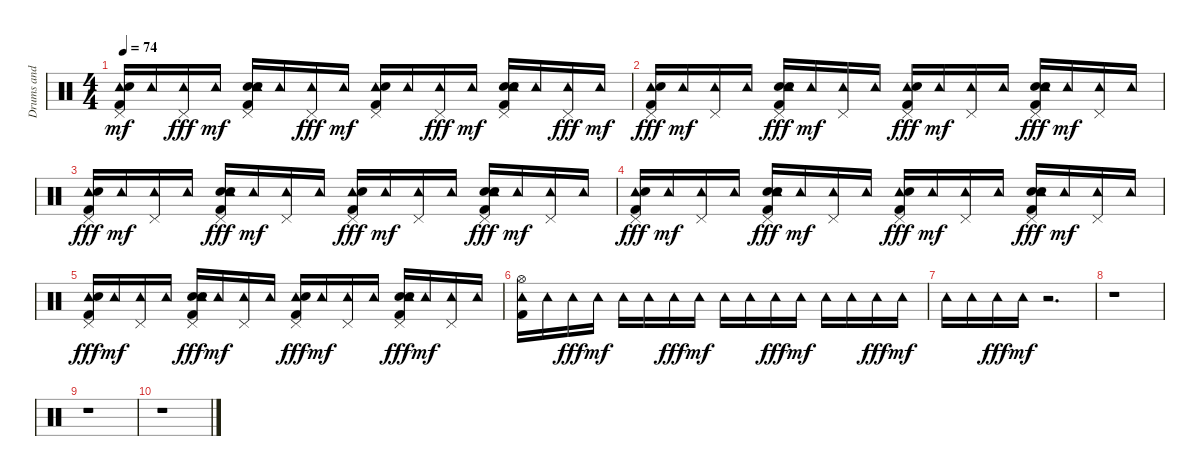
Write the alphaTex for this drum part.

\track ("Drums and Percussion" "Drums and ") {instrument percussion}
\staff {score}
\articulation defaults
\ts (4 4)
\tempo 74
\clef neutral
\ks c
("Tambourine (hit)" "Pedal Hi-Hat (hit)" "Snare (hit) 2" "Kick (hit) 2").16{dy mf} "Tambourine (hit)".16 ("Tambourine (hit)" "Pedal Hi-Hat (hit)").16{dy fff} "Tambourine (hit)".16{dy mf} ("Hand Clap (hit)" "Tambourine (hit)" "Pedal Hi-Hat (hit)" "Snare (hit) 2" "Kick (hit) 2").16 "Tambourine (hit)".16 ("Tambourine (hit)" "Pedal Hi-Hat (hit)").16{dy fff} "Tambourine (hit)".16{dy mf} ("Tambourine (hit)" "Pedal Hi-Hat (hit)" "Snare (hit) 2" "Kick (hit) 2").16 "Tambourine (hit)".16 ("Tambourine (hit)" "Pedal Hi-Hat (hit)").16{dy fff} "Tambourine (hit)".16{dy mf} ("Hand Clap (hit)" "Tambourine (hit)" "Pedal Hi-Hat (hit)" "Snare (hit) 2" "Kick (hit) 2").16 "Tambourine (hit)".16 ("Tambourine (hit)" "Pedal Hi-Hat (hit)").16{dy fff} "Tambourine (hit)".16{dy mf} |
("Tambourine (hit)" "Pedal Hi-Hat (hit)" "Snare (hit) 2" "Kick (hit) 2").16{dy fff} "Tambourine (hit)".16{dy mf} ("Tambourine (hit)" "Pedal Hi-Hat (hit)").16 "Tambourine (hit)".16 ("Hand Clap (hit)" "Tambourine (hit)" "Pedal Hi-Hat (hit)" "Snare (hit) 2" "Kick (hit) 2").16{dy fff} "Tambourine (hit)".16{dy mf} ("Tambourine (hit)" "Pedal Hi-Hat (hit)").16 "Tambourine (hit)".16 ("Tambourine (hit)" "Pedal Hi-Hat (hit)" "Snare (hit) 2" "Kick (hit) 2").16{dy fff} "Tambourine (hit)".16{dy mf} ("Tambourine (hit)" "Pedal Hi-Hat (hit)").16 "Tambourine (hit)".16 ("Hand Clap (hit)" "Tambourine (hit)" "Pedal Hi-Hat (hit)" "Snare (hit) 2" "Kick (hit) 2").16{dy fff} "Tambourine (hit)".16{dy mf} ("Tambourine (hit)" "Pedal Hi-Hat (hit)").16 "Tambourine (hit)".16 |
("Tambourine (hit)" "Pedal Hi-Hat (hit)" "Snare (hit) 2" "Kick (hit) 2").16{dy fff} "Tambourine (hit)".16{dy mf} ("Tambourine (hit)" "Pedal Hi-Hat (hit)").16 "Tambourine (hit)".16 ("Hand Clap (hit)" "Tambourine (hit)" "Pedal Hi-Hat (hit)" "Snare (hit) 2" "Kick (hit) 2").16{dy fff} "Tambourine (hit)".16{dy mf} ("Tambourine (hit)" "Pedal Hi-Hat (hit)").16 "Tambourine (hit)".16 ("Tambourine (hit)" "Pedal Hi-Hat (hit)" "Snare (hit) 2" "Kick (hit) 2").16{dy fff} "Tambourine (hit)".16{dy mf} ("Tambourine (hit)" "Pedal Hi-Hat (hit)").16 "Tambourine (hit)".16 ("Hand Clap (hit)" "Tambourine (hit)" "Pedal Hi-Hat (hit)" "Snare (hit) 2" "Kick (hit) 2").16{dy fff} "Tambourine (hit)".16{dy mf} ("Tambourine (hit)" "Pedal Hi-Hat (hit)").16 "Tambourine (hit)".16 |
("Tambourine (hit)" "Pedal Hi-Hat (hit)" "Snare (hit) 2" "Kick (hit) 2").16{dy fff} "Tambourine (hit)".16{dy mf} ("Tambourine (hit)" "Pedal Hi-Hat (hit)").16 "Tambourine (hit)".16 ("Hand Clap (hit)" "Tambourine (hit)" "Pedal Hi-Hat (hit)" "Snare (hit) 2" "Kick (hit) 2").16{dy fff} "Tambourine (hit)".16{dy mf} ("Tambourine (hit)" "Pedal Hi-Hat (hit)").16 "Tambourine (hit)".16 ("Tambourine (hit)" "Pedal Hi-Hat (hit)" "Snare (hit) 2" "Kick (hit) 2").16{dy fff} "Tambourine (hit)".16{dy mf} ("Tambourine (hit)" "Pedal Hi-Hat (hit)").16 "Tambourine (hit)".16 ("Hand Clap (hit)" "Tambourine (hit)" "Pedal Hi-Hat (hit)" "Snare (hit) 2" "Kick (hit) 2").16{dy fff} "Tambourine (hit)".16{dy mf} ("Tambourine (hit)" "Pedal Hi-Hat (hit)").16 "Tambourine (hit)".16 |
("Tambourine (hit)" "Pedal Hi-Hat (hit)" "Snare (hit) 2" "Kick (hit) 2").16{dy fff} "Tambourine (hit)".16{dy mf} ("Tambourine (hit)" "Pedal Hi-Hat (hit)").16 "Tambourine (hit)".16 ("Hand Clap (hit)" "Tambourine (hit)" "Pedal Hi-Hat (hit)" "Snare (hit) 2" "Kick (hit) 2").16{dy fff} "Tambourine (hit)".16{dy mf} ("Tambourine (hit)" "Pedal Hi-Hat (hit)").16 "Tambourine (hit)".16 ("Tambourine (hit)" "Pedal Hi-Hat (hit)" "Snare (hit) 2" "Kick (hit) 2").16{dy fff} "Tambourine (hit)".16{dy mf} ("Tambourine (hit)" "Pedal Hi-Hat (hit)").16 "Tambourine (hit)".16 ("Hand Clap (hit)" "Tambourine (hit)" "Pedal Hi-Hat (hit)" "Snare (hit) 2" "Kick (hit) 2").16{dy fff} "Tambourine (hit)".16{dy mf} ("Tambourine (hit)" "Pedal Hi-Hat (hit)").16 "Tambourine (hit)".16 |
("Hi-Hat (open)" "Tambourine (hit)" "Kick (hit) 2").16 "Tambourine (hit)".16 "Tambourine (hit)".16{dy fff} "Tambourine (hit)".16{dy mf} "Tambourine (hit)".16 "Tambourine (hit)".16 "Tambourine (hit)".16{dy fff} "Tambourine (hit)".16{dy mf} "Tambourine (hit)".16 "Tambourine (hit)".16 "Tambourine (hit)".16{dy fff} "Tambourine (hit)".16{dy mf} "Tambourine (hit)".16 "Tambourine (hit)".16 "Tambourine (hit)".16{dy fff} "Tambourine (hit)".16{dy mf} |
"Tambourine (hit)".16 "Tambourine (hit)".16 "Tambourine (hit)".16{dy fff} "Tambourine (hit)".16{dy mf} r.2{d} |
r.1 |
r.1 |
r.1
